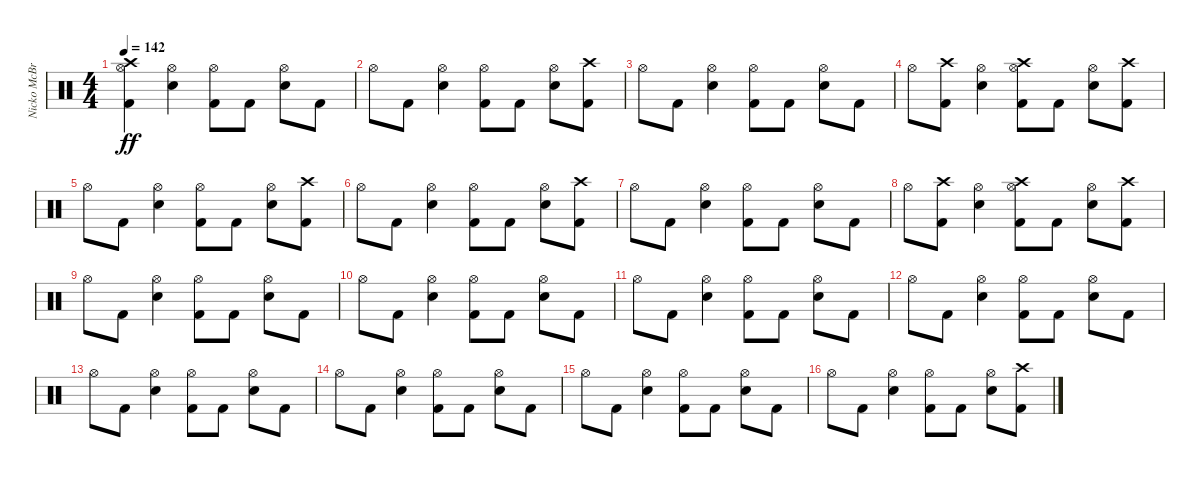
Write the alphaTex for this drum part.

\track ("Nicko McBrain" "Nicko McBr") {instrument percussion}
\staff {score}
\articulation defaults
\ts (4 4)
\tempo 142
\clef neutral
\ks c
("Kick (hit) 2" "Hi-Hat (open)" "Crash high (hit)").4{dy ff} ("Snare (hit) 2" "Hi-Hat (open)").4 ("Kick (hit) 2" "Hi-Hat (open)").8 "Kick (hit) 2".8 ("Snare (hit) 2" "Hi-Hat (open)").8 "Kick (hit) 2".8 |
"Hi-Hat (open)".8 "Kick (hit) 2".8 ("Snare (hit) 2" "Hi-Hat (open)").4 ("Kick (hit) 2" "Hi-Hat (open)").8 "Kick (hit) 2".8 ("Snare (hit) 2" "Hi-Hat (open)").8 ("Kick (hit) 2" "Crash high (hit)").8 |
"Hi-Hat (open)".8 "Kick (hit) 2".8 ("Snare (hit) 2" "Hi-Hat (open)").4 ("Kick (hit) 2" "Hi-Hat (open)").8 "Kick (hit) 2".8 ("Snare (hit) 2" "Hi-Hat (open)").8 "Kick (hit) 2".8 |
"Hi-Hat (open)".8 ("Kick (hit) 2" "Crash high (hit)").8 ("Snare (hit) 2" "Hi-Hat (open)").4 ("Kick (hit) 2" "Hi-Hat (open)" "Crash high (hit)").8 "Kick (hit) 2".8 ("Snare (hit) 2" "Hi-Hat (open)").8 ("Kick (hit) 2" "Crash high (hit)").8 |
"Hi-Hat (open)".8 "Kick (hit) 2".8 ("Snare (hit) 2" "Hi-Hat (open)").4 ("Kick (hit) 2" "Hi-Hat (open)").8 "Kick (hit) 2".8 ("Snare (hit) 2" "Hi-Hat (open)").8 ("Kick (hit) 2" "Crash high (hit)").8 |
"Hi-Hat (open)".8 "Kick (hit) 2".8 ("Snare (hit) 2" "Hi-Hat (open)").4 ("Kick (hit) 2" "Hi-Hat (open)").8 "Kick (hit) 2".8 ("Snare (hit) 2" "Hi-Hat (open)").8 ("Kick (hit) 2" "Crash high (hit)").8 |
"Hi-Hat (open)".8 "Kick (hit) 2".8 ("Snare (hit) 2" "Hi-Hat (open)").4 ("Kick (hit) 2" "Hi-Hat (open)").8 "Kick (hit) 2".8 ("Snare (hit) 2" "Hi-Hat (open)").8 "Kick (hit) 2".8 |
"Hi-Hat (open)".8 ("Kick (hit) 2" "Crash high (hit)").8 ("Snare (hit) 2" "Hi-Hat (open)").4 ("Kick (hit) 2" "Hi-Hat (open)" "Crash high (hit)").8 "Kick (hit) 2".8 ("Snare (hit) 2" "Hi-Hat (open)").8 ("Kick (hit) 2" "Crash high (hit)").8 |
"Hi-Hat (open)".8 "Kick (hit) 2".8 ("Snare (hit) 2" "Hi-Hat (open)").4 ("Kick (hit) 2" "Hi-Hat (open)").8 "Kick (hit) 2".8 ("Snare (hit) 2" "Hi-Hat (open)").8 "Kick (hit) 2".8 |
"Hi-Hat (open)".8 "Kick (hit) 2".8 ("Snare (hit) 2" "Hi-Hat (open)").4 ("Kick (hit) 2" "Hi-Hat (open)").8 "Kick (hit) 2".8 ("Snare (hit) 2" "Hi-Hat (open)").8 "Kick (hit) 2".8 |
"Hi-Hat (open)".8 "Kick (hit) 2".8 ("Snare (hit) 2" "Hi-Hat (open)").4 ("Kick (hit) 2" "Hi-Hat (open)").8 "Kick (hit) 2".8 ("Snare (hit) 2" "Hi-Hat (open)").8 "Kick (hit) 2".8 |
"Hi-Hat (open)".8 "Kick (hit) 2".8 ("Snare (hit) 2" "Hi-Hat (open)").4 ("Kick (hit) 2" "Hi-Hat (open)").8 "Kick (hit) 2".8 ("Snare (hit) 2" "Hi-Hat (open)").8 "Kick (hit) 2".8 |
"Hi-Hat (open)".8 "Kick (hit) 2".8 ("Snare (hit) 2" "Hi-Hat (open)").4 ("Kick (hit) 2" "Hi-Hat (open)").8 "Kick (hit) 2".8 ("Snare (hit) 2" "Hi-Hat (open)").8 "Kick (hit) 2".8 |
"Hi-Hat (open)".8 "Kick (hit) 2".8 ("Snare (hit) 2" "Hi-Hat (open)").4 ("Kick (hit) 2" "Hi-Hat (open)").8 "Kick (hit) 2".8 ("Snare (hit) 2" "Hi-Hat (open)").8 "Kick (hit) 2".8 |
"Hi-Hat (open)".8 "Kick (hit) 2".8 ("Snare (hit) 2" "Hi-Hat (open)").4 ("Kick (hit) 2" "Hi-Hat (open)").8 "Kick (hit) 2".8 ("Snare (hit) 2" "Hi-Hat (open)").8 "Kick (hit) 2".8 |
"Hi-Hat (open)".8 "Kick (hit) 2".8 ("Snare (hit) 2" "Hi-Hat (open)").4 ("Kick (hit) 2" "Hi-Hat (open)").8 "Kick (hit) 2".8 ("Snare (hit) 2" "Hi-Hat (open)").8 ("Kick (hit) 2" "Crash high (hit)").8
